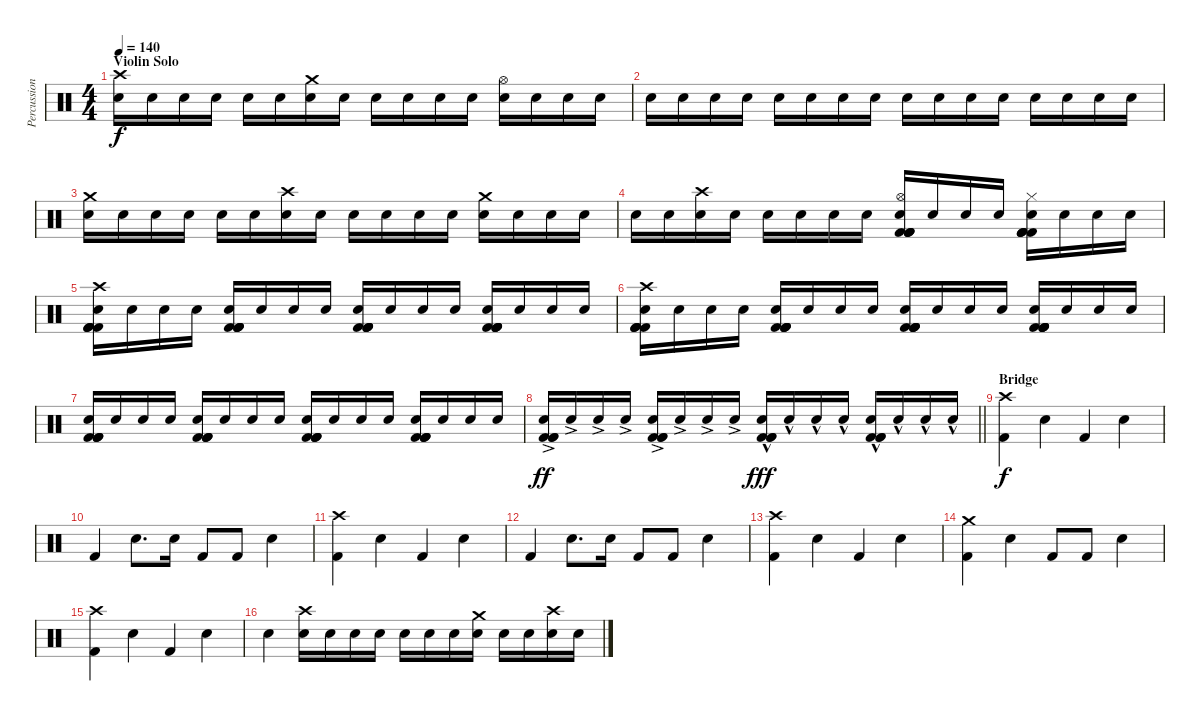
\track ("Percussion (LP III)" "Percussion") {instrument percussion}
\staff {score}
\articulation defaults
\ts (4 4)
\section ("" "Violin Solo")
\tempo 140
\clef neutral
\ks c
("Crash high (hit)" "Snare (hit) 2").16{dy f volume 9} "Snare (hit) 2".16 "Snare (hit) 2".16 "Snare (hit) 2".16 "Snare (hit) 2".16 "Snare (hit) 2".16 ("Crash medium (hit)" "Snare (hit) 2").16 "Snare (hit) 2".16 "Snare (hit) 2".16 "Snare (hit) 2".16 "Snare (hit) 2".16 "Snare (hit) 2".16 ("Hi-Hat (open)" "Snare (hit) 2").16 "Snare (hit) 2".16 "Snare (hit) 2".16 "Snare (hit) 2".16 |
"Snare (hit) 2".16 "Snare (hit) 2".16 "Snare (hit) 2".16 "Snare (hit) 2".16 "Snare (hit) 2".16 "Snare (hit) 2".16 "Snare (hit) 2".16 "Snare (hit) 2".16 "Snare (hit) 2".16 "Snare (hit) 2".16 "Snare (hit) 2".16 "Snare (hit) 2".16 "Snare (hit) 2".16 "Snare (hit) 2".16 "Snare (hit) 2".16 "Snare (hit) 2".16 |
("Crash medium (hit)" "Snare (hit) 2").16 "Snare (hit) 2".16 "Snare (hit) 2".16 "Snare (hit) 2".16 "Snare (hit) 2".16 "Snare (hit) 2".16 ("Crash high (hit)" "Snare (hit) 2").16 "Snare (hit) 2".16 "Snare (hit) 2".16 "Snare (hit) 2".16 "Snare (hit) 2".16 "Snare (hit) 2".16 ("Crash medium (hit)" "Snare (hit) 2").16 "Snare (hit) 2".16 "Snare (hit) 2".16 "Snare (hit) 2".16 |
"Snare (hit) 2".16 "Snare (hit) 2".16 ("Crash high (hit)" "Snare (hit) 2").16 "Snare (hit) 2".16 "Snare (hit) 2".16 "Snare (hit) 2".16 "Snare (hit) 2".16 "Snare (hit) 2".16 ("Hi-Hat (open)" "Kick (hit) 2" "Snare (hit) 2" "Kick (hit) 2" "Kick (hit) 2" "Kick (hit) 2").16 "Snare (hit) 2".16 "Snare (hit) 2".16 "Snare (hit) 2".16 ("Hi-Hat (closed)" "Kick (hit) 2" "Snare (hit) 2" "Kick (hit) 2" "Kick (hit) 2" "Kick (hit) 2").16 "Snare (hit) 2".16 "Snare (hit) 2".16 "Snare (hit) 2".16 |
("Crash high (hit)" "Kick (hit) 2" "Snare (hit) 2" "Kick (hit) 2" "Kick (hit) 2" "Kick (hit) 2").16 "Snare (hit) 2".16 "Snare (hit) 2".16 "Snare (hit) 2".16 ("Kick (hit) 2" "Kick (hit) 2" "Snare (hit) 2" "Kick (hit) 2" "Kick (hit) 2" "Kick (hit) 2").16 "Snare (hit) 2".16 "Snare (hit) 2".16 "Snare (hit) 2".16 ("Kick (hit) 2" "Kick (hit) 2" "Snare (hit) 2" "Kick (hit) 2" "Kick (hit) 2" "Kick (hit) 2").16 "Snare (hit) 2".16 "Snare (hit) 2".16 "Snare (hit) 2".16 ("Kick (hit) 2" "Kick (hit) 2" "Snare (hit) 2" "Kick (hit) 2" "Kick (hit) 2" "Kick (hit) 2").16 "Snare (hit) 2".16 "Snare (hit) 2".16 "Snare (hit) 2".16 |
("Crash high (hit)" "Kick (hit) 2" "Snare (hit) 2" "Kick (hit) 2" "Kick (hit) 2" "Kick (hit) 2").16 "Snare (hit) 2".16 "Snare (hit) 2".16 "Snare (hit) 2".16 ("Kick (hit) 2" "Kick (hit) 2" "Snare (hit) 2" "Kick (hit) 2" "Kick (hit) 2" "Kick (hit) 2").16 "Snare (hit) 2".16 "Snare (hit) 2".16 "Snare (hit) 2".16 ("Kick (hit) 2" "Kick (hit) 2" "Snare (hit) 2" "Kick (hit) 2" "Kick (hit) 2" "Kick (hit) 2").16 "Snare (hit) 2".16 "Snare (hit) 2".16 "Snare (hit) 2".16 ("Kick (hit) 2" "Kick (hit) 2" "Snare (hit) 2" "Kick (hit) 2" "Kick (hit) 2" "Kick (hit) 2").16 "Snare (hit) 2".16 "Snare (hit) 2".16 "Snare (hit) 2".16 |
("Kick (hit) 2" "Snare (hit) 2" "Kick (hit) 2" "Kick (hit) 2" "Kick (hit) 2").16 "Snare (hit) 2".16 "Snare (hit) 2".16 "Snare (hit) 2".16 ("Kick (hit) 2" "Snare (hit) 2" "Kick (hit) 2" "Kick (hit) 2" "Kick (hit) 2").16 "Snare (hit) 2".16 "Snare (hit) 2".16 "Snare (hit) 2".16 ("Kick (hit) 2" "Snare (hit) 2" "Kick (hit) 2" "Kick (hit) 2" "Kick (hit) 2").16 "Snare (hit) 2".16 "Snare (hit) 2".16 "Snare (hit) 2".16 ("Kick (hit) 2" "Snare (hit) 2" "Kick (hit) 2" "Kick (hit) 2" "Kick (hit) 2").16 "Snare (hit) 2".16 "Snare (hit) 2".16 "Snare (hit) 2".16 |
\barLineRight lightlight
("Snare (hit) 2"{ac} "Kick (hit) 2" "Kick (hit) 2" "Kick (hit) 2").16{dy ff} "Snare (hit) 2"{ac}.16 "Snare (hit) 2"{ac}.16 "Snare (hit) 2"{ac}.16 ("Snare (hit) 2"{ac} "Kick (hit) 2" "Kick (hit) 2" "Kick (hit) 2").16 "Snare (hit) 2"{ac}.16 "Snare (hit) 2"{ac}.16 "Snare (hit) 2"{ac}.16 ("Snare (hit) 2"{hac} "Kick (hit) 2" "Kick (hit) 2" "Kick (hit) 2").16{dy fff} "Snare (hit) 2"{hac}.16 "Snare (hit) 2"{hac}.16 "Snare (hit) 2"{hac}.16 ("Snare (hit) 2"{hac} "Kick (hit) 2" "Kick (hit) 2" "Kick (hit) 2").16 "Snare (hit) 2"{hac}.16 "Snare (hit) 2"{hac}.16 "Snare (hit) 2"{hac}.16 |
\section ("" "Bridge")
("Crash high (hit)" "Kick (hit) 2").4{dy f volume 13} "Snare (hit) 2".4 "Kick (hit) 2".4 "Snare (hit) 2".4 |
"Kick (hit) 2".4 "Snare (hit) 2".8{d} "Snare (hit) 2".16 "Kick (hit) 2".8 "Kick (hit) 2".8 "Snare (hit) 2".4 |
("Crash high (hit)" "Kick (hit) 2").4 "Snare (hit) 2".4 "Kick (hit) 2".4 "Snare (hit) 2".4 |
"Kick (hit) 2".4 "Snare (hit) 2".8{d} "Snare (hit) 2".16 "Kick (hit) 2".8 "Kick (hit) 2".8 "Snare (hit) 2".4 |
("Crash high (hit)" "Kick (hit) 2").4 "Snare (hit) 2".4 "Kick (hit) 2".4 "Snare (hit) 2".4 |
("Crash medium (hit)" "Kick (hit) 2").4 "Snare (hit) 2".4 "Kick (hit) 2".8 "Kick (hit) 2".8 "Snare (hit) 2".4 |
("Crash high (hit)" "Kick (hit) 2").4 "Snare (hit) 2".4 "Kick (hit) 2".4 "Snare (hit) 2".4 |
"Snare (hit) 2".4 ("Crash high (hit)" "Snare (hit) 2").16 "Snare (hit) 2".16 "Snare (hit) 2".16 "Snare (hit) 2".16 "Snare (hit) 2".16 "Snare (hit) 2".16 "Snare (hit) 2".16 ("Crash medium (hit)" "Snare (hit) 2").16 "Snare (hit) 2".16 "Snare (hit) 2".16 ("Crash high (hit)" "Snare (hit) 2").16 "Snare (hit) 2".16
